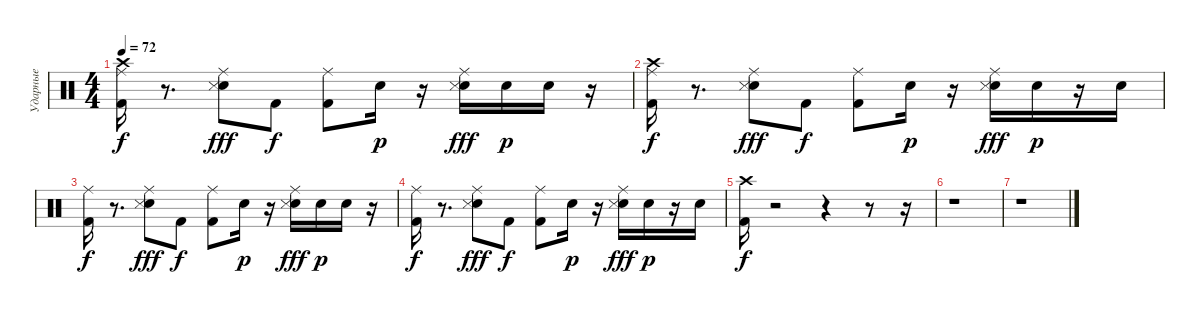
\track ("Ударные" "Ударные") {instrument percussion}
\staff {score}
\articulation defaults
\ts (4 4)
\tempo 72
\clef neutral
\ks c
("Kick (hit) 2" "Crash high (hit)" "Ride (middle)").16{dy f} r.8{d} ("Electric Snare (hit)" "Snare (side stick) 3" "Ride (middle)").8{dy fff} "Kick (hit) 2".8{dy f} ("Kick (hit) 2" "Ride (middle)").8 "Snare (hit) 2".16{dy p} r.16 ("Electric Snare (hit)" "Snare (side stick) 3" "Ride (middle)").16{dy fff} "Snare (hit) 2".16{dy p} "Snare (hit) 2".16 r.16 |
("Kick (hit) 2" "Crash high (hit)" "Ride (middle)").16{dy f} r.8{d} ("Electric Snare (hit)" "Snare (side stick) 3" "Ride (middle)").8{dy fff} "Kick (hit) 2".8{dy f} ("Kick (hit) 2" "Ride (middle)").8 "Snare (hit) 2".16{dy p} r.16 ("Electric Snare (hit)" "Snare (side stick) 3" "Ride (middle)").16{dy fff} "Snare (hit) 2".16{dy p} r.16 "Snare (hit) 2".16 |
("Kick (hit) 2" "Ride (middle)").16{dy f} r.8{d} ("Electric Snare (hit)" "Snare (side stick) 3" "Ride (middle)").8{dy fff} "Kick (hit) 2".8{dy f} ("Kick (hit) 2" "Ride (middle)").8 "Snare (hit) 2".16{dy p} r.16 ("Electric Snare (hit)" "Snare (side stick) 3" "Ride (middle)").16{dy fff} "Snare (hit) 2".16{dy p} "Snare (hit) 2".16 r.16 |
("Kick (hit) 2" "Ride (middle)").16{dy f} r.8{d} ("Electric Snare (hit)" "Snare (side stick) 3" "Ride (middle)").8{dy fff} "Kick (hit) 2".8{dy f} ("Kick (hit) 2" "Ride (middle)").8 "Snare (hit) 2".16{dy p} r.16 ("Electric Snare (hit)" "Snare (side stick) 3" "Ride (middle)").16{dy fff} "Snare (hit) 2".16{dy p} r.16 "Snare (hit) 2".16 |
("Kick (hit) 2" "Crash high (hit)").16{dy f} r.2 r.4 r.8 r.16 |
r.1 |
r.1
